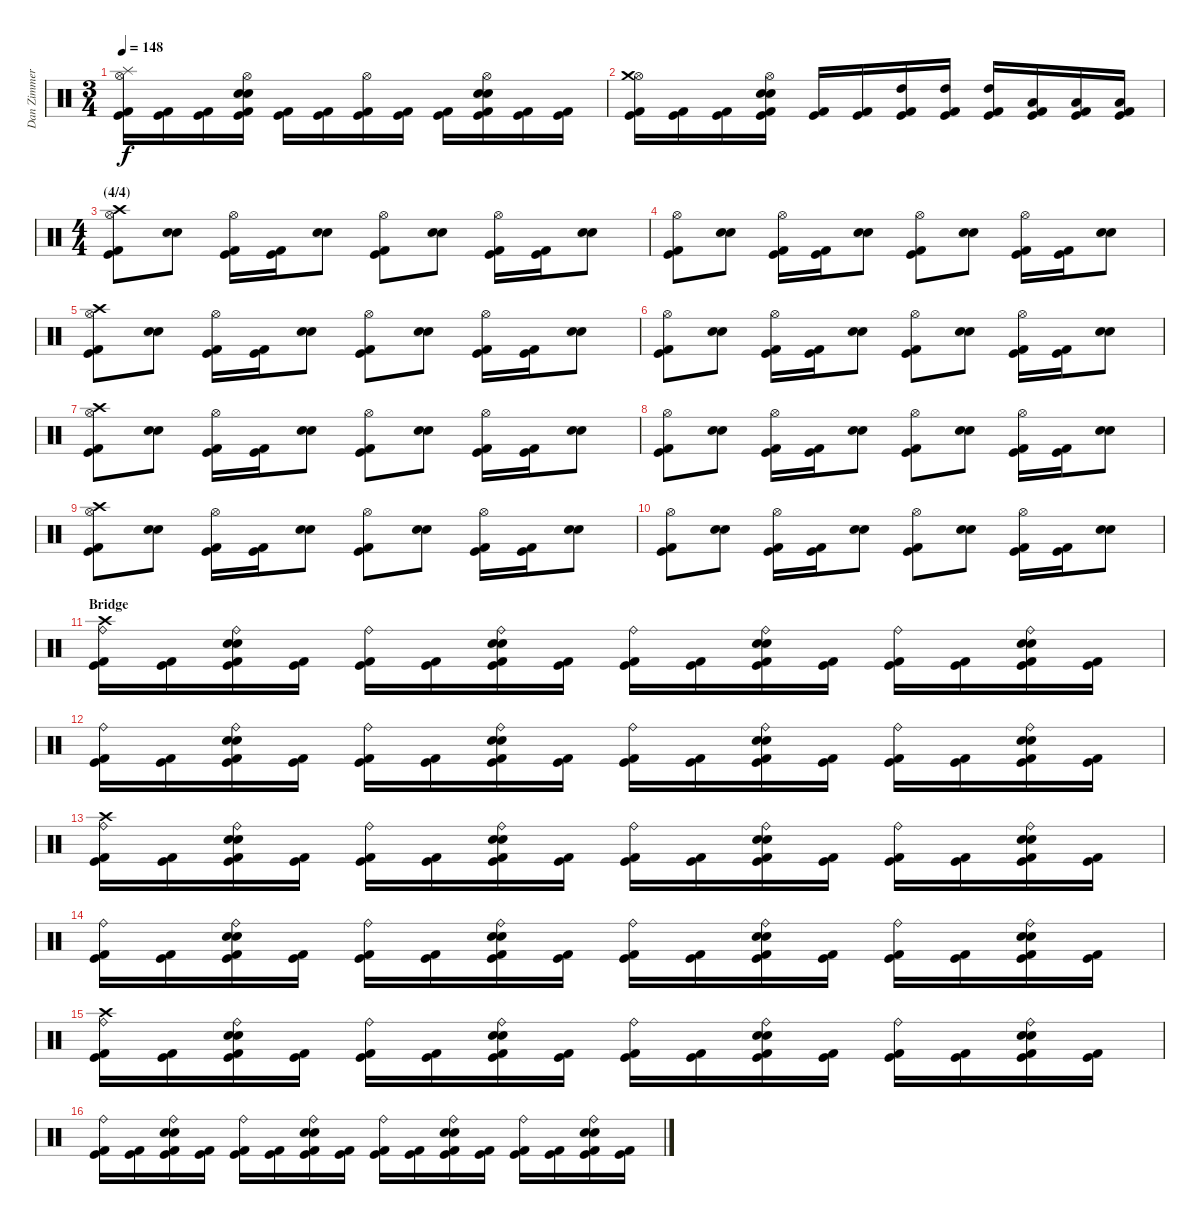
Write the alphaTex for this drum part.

\track ("Dan Zimmerman<Drum>" "Dan Zimmer") {instrument percussion}
\staff {score}
\articulation defaults
\ts (3 4)
\tempo 148
\clef neutral
\ks c
("Hi-Hat (open)" "Splash (hit)" "Kick (hit) 2" "Kick (hit)").16{dy f} ("Kick (hit) 2" "Kick (hit)").16 ("Kick (hit) 2" "Kick (hit)").16 ("Hi-Hat (open)" "Electric Snare (hit)" "Snare (hit) 2" "Kick (hit) 2" "Kick (hit)").16 ("Kick (hit) 2" "Kick (hit)").16 ("Kick (hit) 2" "Kick (hit)").16 ("Hi-Hat (open)" "Kick (hit) 2" "Kick (hit)").16 ("Kick (hit) 2" "Kick (hit)").16 ("Kick (hit) 2" "Kick (hit)").16 ("Hi-Hat (open)" "Electric Snare (hit)" "Snare (hit) 2" "Kick (hit) 2" "Kick (hit)").16 ("Kick (hit) 2" "Kick (hit)").16 ("Kick (hit) 2" "Kick (hit)").16 |
("Hi-Hat (open)" "Crash medium (hit)" "Kick (hit) 2" "Kick (hit)").16 ("Kick (hit) 2" "Kick (hit)").16 ("Kick (hit) 2" "Kick (hit)").16 ("Hi-Hat (open)" "Electric Snare (hit)" "Snare (hit) 2" "Kick (hit) 2" "Kick (hit)").16 ("Kick (hit) 2" "Kick (hit)").16 ("Kick (hit) 2" "Kick (hit)").16 ("High Tom (hit)" "Kick (hit) 2" "Kick (hit)").16 ("High Tom (hit)" "Kick (hit) 2" "Kick (hit)").16 ("High Tom (hit)" "Kick (hit) 2" "Kick (hit)").16 ("Low Tom (hit)" "Kick (hit) 2" "Kick (hit)").16 ("Low Tom (hit)" "Kick (hit) 2" "Kick (hit)").16 ("Low Tom (hit)" "Kick (hit) 2" "Kick (hit)").16 |
\ts (4 4)
\section ("" "(4/4)")
("Hi-Hat (open)" "Crash high (hit)" "Kick (hit) 2" "Kick (hit)").8 ("Snare (hit) 2" "Electric Snare (hit)").8 ("Hi-Hat (open)" "Kick (hit) 2" "Kick (hit)").16 ("Kick (hit) 2" "Kick (hit)").16 ("Snare (hit) 2" "Electric Snare (hit)").8 ("Hi-Hat (open)" "Kick (hit) 2" "Kick (hit)").8 ("Snare (hit) 2" "Electric Snare (hit)").8 ("Hi-Hat (open)" "Kick (hit) 2" "Kick (hit)").16 ("Kick (hit) 2" "Kick (hit)").16 ("Snare (hit) 2" "Electric Snare (hit)").8 |
("Hi-Hat (open)" "Kick (hit) 2" "Kick (hit)").8 ("Snare (hit) 2" "Electric Snare (hit)").8 ("Hi-Hat (open)" "Kick (hit) 2" "Kick (hit)").16 ("Kick (hit) 2" "Kick (hit)").16 ("Snare (hit) 2" "Electric Snare (hit)").8 ("Hi-Hat (open)" "Kick (hit) 2" "Kick (hit)").8 ("Snare (hit) 2" "Electric Snare (hit)").8 ("Hi-Hat (open)" "Kick (hit) 2" "Kick (hit)").16 ("Kick (hit) 2" "Kick (hit)").16 ("Snare (hit) 2" "Electric Snare (hit)").8 |
("Hi-Hat (open)" "Crash high (hit)" "Kick (hit) 2" "Kick (hit)").8 ("Snare (hit) 2" "Electric Snare (hit)").8 ("Hi-Hat (open)" "Kick (hit) 2" "Kick (hit)").16 ("Kick (hit) 2" "Kick (hit)").16 ("Snare (hit) 2" "Electric Snare (hit)").8 ("Hi-Hat (open)" "Kick (hit) 2" "Kick (hit)").8 ("Snare (hit) 2" "Electric Snare (hit)").8 ("Hi-Hat (open)" "Kick (hit) 2" "Kick (hit)").16 ("Kick (hit) 2" "Kick (hit)").16 ("Snare (hit) 2" "Electric Snare (hit)").8 |
("Hi-Hat (open)" "Kick (hit) 2" "Kick (hit)").8 ("Snare (hit) 2" "Electric Snare (hit)").8 ("Hi-Hat (open)" "Kick (hit) 2" "Kick (hit)").16 ("Kick (hit) 2" "Kick (hit)").16 ("Snare (hit) 2" "Electric Snare (hit)").8 ("Hi-Hat (open)" "Kick (hit) 2" "Kick (hit)").8 ("Snare (hit) 2" "Electric Snare (hit)").8 ("Hi-Hat (open)" "Kick (hit) 2" "Kick (hit)").16 ("Kick (hit) 2" "Kick (hit)").16 ("Snare (hit) 2" "Electric Snare (hit)").8 |
("Hi-Hat (open)" "Crash high (hit)" "Kick (hit) 2" "Kick (hit)").8 ("Snare (hit) 2" "Electric Snare (hit)").8 ("Hi-Hat (open)" "Kick (hit) 2" "Kick (hit)").16 ("Kick (hit) 2" "Kick (hit)").16 ("Snare (hit) 2" "Electric Snare (hit)").8 ("Hi-Hat (open)" "Kick (hit) 2" "Kick (hit)").8 ("Snare (hit) 2" "Electric Snare (hit)").8 ("Hi-Hat (open)" "Kick (hit) 2" "Kick (hit)").16 ("Kick (hit) 2" "Kick (hit)").16 ("Snare (hit) 2" "Electric Snare (hit)").8 |
("Hi-Hat (open)" "Kick (hit) 2" "Kick (hit)").8 ("Snare (hit) 2" "Electric Snare (hit)").8 ("Hi-Hat (open)" "Kick (hit) 2" "Kick (hit)").16 ("Kick (hit) 2" "Kick (hit)").16 ("Snare (hit) 2" "Electric Snare (hit)").8 ("Hi-Hat (open)" "Kick (hit) 2" "Kick (hit)").8 ("Snare (hit) 2" "Electric Snare (hit)").8 ("Hi-Hat (open)" "Kick (hit) 2" "Kick (hit)").16 ("Kick (hit) 2" "Kick (hit)").16 ("Snare (hit) 2" "Electric Snare (hit)").8 |
("Hi-Hat (open)" "Crash high (hit)" "Kick (hit) 2" "Kick (hit)").8 ("Snare (hit) 2" "Electric Snare (hit)").8 ("Hi-Hat (open)" "Kick (hit) 2" "Kick (hit)").16 ("Kick (hit) 2" "Kick (hit)").16 ("Snare (hit) 2" "Electric Snare (hit)").8 ("Hi-Hat (open)" "Kick (hit) 2" "Kick (hit)").8 ("Snare (hit) 2" "Electric Snare (hit)").8 ("Hi-Hat (open)" "Kick (hit) 2" "Kick (hit)").16 ("Kick (hit) 2" "Kick (hit)").16 ("Snare (hit) 2" "Electric Snare (hit)").8 |
("Hi-Hat (open)" "Kick (hit) 2" "Kick (hit)").8 ("Snare (hit) 2" "Electric Snare (hit)").8 ("Hi-Hat (open)" "Kick (hit) 2" "Kick (hit)").16 ("Kick (hit) 2" "Kick (hit)").16 ("Snare (hit) 2" "Electric Snare (hit)").8 ("Hi-Hat (open)" "Kick (hit) 2" "Kick (hit)").8 ("Snare (hit) 2" "Electric Snare (hit)").8 ("Hi-Hat (open)" "Kick (hit) 2" "Kick (hit)").16 ("Kick (hit) 2" "Kick (hit)").16 ("Snare (hit) 2" "Electric Snare (hit)").8 |
\section ("" "Bridge")
("Ride (bell)" "Crash high (hit)" "Kick (hit) 2" "Kick (hit)").16 ("Kick (hit) 2" "Kick (hit)").16 ("Ride (bell)" "Snare (hit) 2" "Electric Snare (hit)" "Kick (hit) 2" "Kick (hit)").16 ("Kick (hit) 2" "Kick (hit)").16 ("Ride (bell)" "Kick (hit) 2" "Kick (hit)").16 ("Kick (hit) 2" "Kick (hit)").16 ("Ride (bell)" "Snare (hit) 2" "Electric Snare (hit)" "Kick (hit) 2" "Kick (hit)").16 ("Kick (hit) 2" "Kick (hit)").16 ("Ride (bell)" "Kick (hit) 2" "Kick (hit)").16 ("Kick (hit) 2" "Kick (hit)").16 ("Ride (bell)" "Snare (hit) 2" "Electric Snare (hit)" "Kick (hit) 2" "Kick (hit)").16 ("Kick (hit) 2" "Kick (hit)").16 ("Ride (bell)" "Kick (hit) 2" "Kick (hit)").16 ("Kick (hit) 2" "Kick (hit)").16 ("Ride (bell)" "Snare (hit) 2" "Electric Snare (hit)" "Kick (hit) 2" "Kick (hit)").16 ("Kick (hit) 2" "Kick (hit)").16 |
("Ride (bell)" "Kick (hit) 2" "Kick (hit)").16 ("Kick (hit) 2" "Kick (hit)").16 ("Ride (bell)" "Snare (hit) 2" "Electric Snare (hit)" "Kick (hit) 2" "Kick (hit)").16 ("Kick (hit) 2" "Kick (hit)").16 ("Ride (bell)" "Kick (hit) 2" "Kick (hit)").16 ("Kick (hit) 2" "Kick (hit)").16 ("Ride (bell)" "Snare (hit) 2" "Electric Snare (hit)" "Kick (hit) 2" "Kick (hit)").16 ("Kick (hit) 2" "Kick (hit)").16 ("Ride (bell)" "Kick (hit) 2" "Kick (hit)").16 ("Kick (hit) 2" "Kick (hit)").16 ("Ride (bell)" "Snare (hit) 2" "Electric Snare (hit)" "Kick (hit) 2" "Kick (hit)").16 ("Kick (hit) 2" "Kick (hit)").16 ("Ride (bell)" "Kick (hit) 2" "Kick (hit)").16 ("Kick (hit) 2" "Kick (hit)").16 ("Ride (bell)" "Snare (hit) 2" "Electric Snare (hit)" "Kick (hit) 2" "Kick (hit)").16 ("Kick (hit) 2" "Kick (hit)").16 |
("Ride (bell)" "Crash high (hit)" "Kick (hit) 2" "Kick (hit)").16 ("Kick (hit) 2" "Kick (hit)").16 ("Ride (bell)" "Snare (hit) 2" "Electric Snare (hit)" "Kick (hit) 2" "Kick (hit)").16 ("Kick (hit) 2" "Kick (hit)").16 ("Ride (bell)" "Kick (hit) 2" "Kick (hit)").16 ("Kick (hit) 2" "Kick (hit)").16 ("Ride (bell)" "Snare (hit) 2" "Electric Snare (hit)" "Kick (hit) 2" "Kick (hit)").16 ("Kick (hit) 2" "Kick (hit)").16 ("Ride (bell)" "Kick (hit) 2" "Kick (hit)").16 ("Kick (hit) 2" "Kick (hit)").16 ("Ride (bell)" "Snare (hit) 2" "Electric Snare (hit)" "Kick (hit) 2" "Kick (hit)").16 ("Kick (hit) 2" "Kick (hit)").16 ("Ride (bell)" "Kick (hit) 2" "Kick (hit)").16 ("Kick (hit) 2" "Kick (hit)").16 ("Ride (bell)" "Snare (hit) 2" "Electric Snare (hit)" "Kick (hit) 2" "Kick (hit)").16 ("Kick (hit) 2" "Kick (hit)").16 |
("Ride (bell)" "Kick (hit) 2" "Kick (hit)").16 ("Kick (hit) 2" "Kick (hit)").16 ("Ride (bell)" "Snare (hit) 2" "Electric Snare (hit)" "Kick (hit) 2" "Kick (hit)").16 ("Kick (hit) 2" "Kick (hit)").16 ("Ride (bell)" "Kick (hit) 2" "Kick (hit)").16 ("Kick (hit) 2" "Kick (hit)").16 ("Ride (bell)" "Snare (hit) 2" "Electric Snare (hit)" "Kick (hit) 2" "Kick (hit)").16 ("Kick (hit) 2" "Kick (hit)").16 ("Ride (bell)" "Kick (hit) 2" "Kick (hit)").16 ("Kick (hit) 2" "Kick (hit)").16 ("Ride (bell)" "Snare (hit) 2" "Electric Snare (hit)" "Kick (hit) 2" "Kick (hit)").16 ("Kick (hit) 2" "Kick (hit)").16 ("Ride (bell)" "Kick (hit) 2" "Kick (hit)").16 ("Kick (hit) 2" "Kick (hit)").16 ("Ride (bell)" "Snare (hit) 2" "Electric Snare (hit)" "Kick (hit) 2" "Kick (hit)").16 ("Kick (hit) 2" "Kick (hit)").16 |
("Ride (bell)" "Crash high (hit)" "Kick (hit) 2" "Kick (hit)").16 ("Kick (hit) 2" "Kick (hit)").16 ("Ride (bell)" "Snare (hit) 2" "Electric Snare (hit)" "Kick (hit) 2" "Kick (hit)").16 ("Kick (hit) 2" "Kick (hit)").16 ("Ride (bell)" "Kick (hit) 2" "Kick (hit)").16 ("Kick (hit) 2" "Kick (hit)").16 ("Ride (bell)" "Snare (hit) 2" "Electric Snare (hit)" "Kick (hit) 2" "Kick (hit)").16 ("Kick (hit) 2" "Kick (hit)").16 ("Ride (bell)" "Kick (hit) 2" "Kick (hit)").16 ("Kick (hit) 2" "Kick (hit)").16 ("Ride (bell)" "Snare (hit) 2" "Electric Snare (hit)" "Kick (hit) 2" "Kick (hit)").16 ("Kick (hit) 2" "Kick (hit)").16 ("Ride (bell)" "Kick (hit) 2" "Kick (hit)").16 ("Kick (hit) 2" "Kick (hit)").16 ("Ride (bell)" "Snare (hit) 2" "Electric Snare (hit)" "Kick (hit) 2" "Kick (hit)").16 ("Kick (hit) 2" "Kick (hit)").16 |
("Ride (bell)" "Kick (hit) 2" "Kick (hit)").16 ("Kick (hit) 2" "Kick (hit)").16 ("Ride (bell)" "Snare (hit) 2" "Electric Snare (hit)" "Kick (hit) 2" "Kick (hit)").16 ("Kick (hit) 2" "Kick (hit)").16 ("Ride (bell)" "Kick (hit) 2" "Kick (hit)").16 ("Kick (hit) 2" "Kick (hit)").16 ("Ride (bell)" "Snare (hit) 2" "Electric Snare (hit)" "Kick (hit) 2" "Kick (hit)").16 ("Kick (hit) 2" "Kick (hit)").16 ("Ride (bell)" "Kick (hit) 2" "Kick (hit)").16 ("Kick (hit) 2" "Kick (hit)").16 ("Ride (bell)" "Snare (hit) 2" "Electric Snare (hit)" "Kick (hit) 2" "Kick (hit)").16 ("Kick (hit) 2" "Kick (hit)").16 ("Ride (bell)" "Kick (hit) 2" "Kick (hit)").16 ("Kick (hit) 2" "Kick (hit)").16 ("Ride (bell)" "Snare (hit) 2" "Electric Snare (hit)" "Kick (hit) 2" "Kick (hit)").16 ("Kick (hit) 2" "Kick (hit)").16
